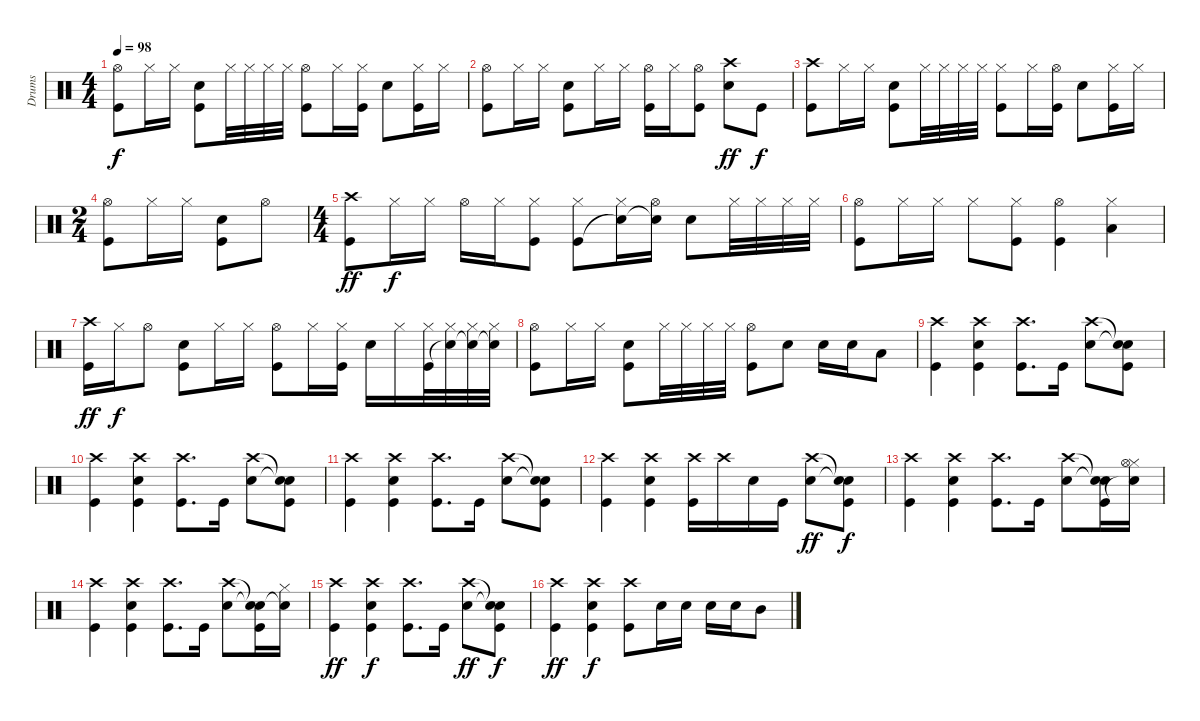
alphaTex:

\track ("Drums" "Drums") {instrument percussion}
\staff {score}
\articulation defaults
\ts (4 4)
\tempo 98
\clef neutral
\ks c
("Hi-Hat (open)" "Kick (hit)").8{dy f} "Hi-Hat (closed)".16 "Hi-Hat (closed)".16 ("Kick (hit)" "Electric Snare (hit)").8 "Hi-Hat (closed)".32 "Hi-Hat (closed)".32 "Hi-Hat (closed)".32 "Hi-Hat (closed)".32 ("Hi-Hat (open)" "Kick (hit)").8 "Hi-Hat (closed)".16 ("Hi-Hat (closed)" "Kick (hit)").16 "Electric Snare (hit)".8 ("Hi-Hat (closed)" "Kick (hit)").16 "Hi-Hat (closed)".16 |
("Hi-Hat (open)" "Kick (hit)").8 "Hi-Hat (closed)".16 "Hi-Hat (closed)".16 ("Kick (hit)" "Electric Snare (hit)").8 "Hi-Hat (closed)".16 "Hi-Hat (closed)".16 ("Hi-Hat (open)" "Kick (hit)").16 "Hi-Hat (closed)".16 ("Hi-Hat (open)" "Kick (hit)").8 ("Crash high (hit)" "Electric Snare (hit)").8{dy ff} "Kick (hit)".8{dy f} |
("Crash high (hit)" "Kick (hit)").8 "Hi-Hat (closed)".16 "Hi-Hat (closed)".16 ("Kick (hit)" "Electric Snare (hit)").8 "Hi-Hat (closed)".32 "Hi-Hat (closed)".32 "Hi-Hat (closed)".32 "Hi-Hat (closed)".32 ("Hi-Hat (closed)" "Kick (hit)").8 "Hi-Hat (closed)".16 ("Hi-Hat (open)" "Kick (hit)").16 "Electric Snare (hit)".8 ("Hi-Hat (closed)" "Kick (hit)").16 "Hi-Hat (closed)".16 |
\ts (2 4)
("Hi-Hat (open)" "Kick (hit)").8 "Hi-Hat (closed)".16 "Hi-Hat (closed)".16 ("Kick (hit)" "Electric Snare (hit)").8 "Hi-Hat (open)".8 |
\ts (4 4)
("Crash high (hit)" "Kick (hit)").8{dy ff} "Hi-Hat (closed)".16{dy f} "Hi-Hat (closed)".16 "Hi-Hat (open)".16 "Hi-Hat (closed)".16 ("Hi-Hat (closed)" "Kick (hit)").8 ("Hi-Hat (closed)" "Kick (hit)").8 ("Hi-Hat (closed)" "Snare (hit)"{t}).16 ("Hi-Hat (open)" "Snare (hit)"{t}).16 "Electric Snare (hit)".8 "Hi-Hat (closed)".32 "Hi-Hat (closed)".32 "Hi-Hat (closed)".32 "Hi-Hat (closed)".32 |
("Hi-Hat (open)" "Kick (hit)").8 "Hi-Hat (closed)".16 "Hi-Hat (closed)".16 "Hi-Hat (closed)".8 ("Hi-Hat (closed)" "Kick (hit)").8 ("Hi-Hat (open)" "Kick (hit)").4 ("Hi-Hat (closed)" "Low Tom (hit)").4 |
("Crash high (hit)" "Kick (hit)").16{dy ff} "Hi-Hat (closed)".16{dy f} "Hi-Hat (open)".8 ("Kick (hit)" "Electric Snare (hit)").8 "Hi-Hat (closed)".16 "Hi-Hat (closed)".16 ("Hi-Hat (open)" "Kick (hit)").8 "Hi-Hat (closed)".16 ("Hi-Hat (closed)" "Kick (hit)").16 "Electric Snare (hit)".16 "Hi-Hat (closed)".16 ("Hi-Hat (closed)" "Kick (hit)").32 ("Hi-Hat (closed)" "Snare (hit)"{t}).32 ("Hi-Hat (closed)" "Snare (hit)"{t}).32 ("Hi-Hat (closed)" "Snare (hit)"{t}).32 |
("Hi-Hat (open)" "Kick (hit)").8 "Hi-Hat (closed)".16 "Hi-Hat (closed)".16 ("Electric Snare (hit)" "Kick (hit)").8 "Hi-Hat (closed)".32 "Hi-Hat (closed)".32 "Hi-Hat (closed)".32 "Hi-Hat (closed)".32 ("Hi-Hat (open)" "Kick (hit)").8 "Electric Snare (hit)".8 "Electric Snare (hit)".16 "Electric Snare (hit)".16 "Low Tom (hit)".8 |
("Crash high (hit)" "Kick (hit)").4 ("Crash high (hit)" "Electric Snare (hit)" "Kick (hit)").4 ("Crash high (hit)" "Kick (hit)").8{d} "Kick (hit)".16 ("Crash high (hit)" "Electric Snare (hit)").8 ("Snare (hit)"{t} "Snare (hit)"{t} "Kick (hit)").8 |
("Crash high (hit)" "Kick (hit)").4 ("Crash high (hit)" "Electric Snare (hit)" "Kick (hit)").4 ("Crash high (hit)" "Kick (hit)").8{d} "Kick (hit)".16 ("Crash high (hit)" "Electric Snare (hit)").8 ("Snare (hit)"{t} "Snare (hit)"{t} "Kick (hit)").8 |
("Crash high (hit)" "Kick (hit)").4 ("Crash high (hit)" "Electric Snare (hit)" "Kick (hit)").4 ("Crash high (hit)" "Kick (hit)").8{d} "Kick (hit)".16 ("Crash high (hit)" "Electric Snare (hit)").8 ("Snare (hit)"{t} "Snare (hit)"{t} "Kick (hit)").8 |
("Crash high (hit)" "Kick (hit)").4 ("Crash high (hit)" "Electric Snare (hit)" "Kick (hit)").4 ("Crash high (hit)" "Kick (hit)").16 "Crash high (hit)".16 "Electric Snare (hit)".16 "Kick (hit)".16 ("Crash high (hit)" "Electric Snare (hit)").8{dy ff} ("Snare (hit)"{t} "Snare (hit)"{t} "Kick (hit)").8{dy f} |
("Crash high (hit)" "Kick (hit)").4 ("Crash high (hit)" "Electric Snare (hit)" "Kick (hit)").4 ("Crash high (hit)" "Kick (hit)").8{d} "Kick (hit)".16 ("Crash high (hit)" "Electric Snare (hit)").8 ("Snare (hit)"{t} "Snare (hit)"{t} "Kick (hit)").16 ("Hi-Hat (closed)" "Hi-Hat (open)" "Snare (hit)"{t}).16 |
("Crash high (hit)" "Kick (hit)").4 ("Crash high (hit)" "Electric Snare (hit)" "Kick (hit)").4 ("Crash high (hit)" "Kick (hit)").8{d} "Kick (hit)".16 ("Crash high (hit)" "Electric Snare (hit)").8 ("Snare (hit)"{t} "Snare (hit)"{t} "Kick (hit)").16 ("Hi-Hat (closed)" "Snare (hit)"{t}).16 |
("Crash high (hit)" "Kick (hit)").4{dy ff} ("Crash high (hit)" "Electric Snare (hit)" "Kick (hit)").4{dy f} ("Crash high (hit)" "Kick (hit)").8{d} "Kick (hit)".16 ("Crash high (hit)" "Electric Snare (hit)").8{dy ff} ("Snare (hit)"{t} "Snare (hit)"{t} "Kick (hit)").8{dy f} |
("Crash high (hit)" "Kick (hit)").4{dy ff} ("Crash high (hit)" "Kick (hit)" "Electric Snare (hit)").4{dy f} ("Crash high (hit)" "Kick (hit)").8 "Electric Snare (hit)".16 "Electric Snare (hit)".16 "Electric Snare (hit)".16 "Electric Snare (hit)".16 "Mid Tom (hit)".8
